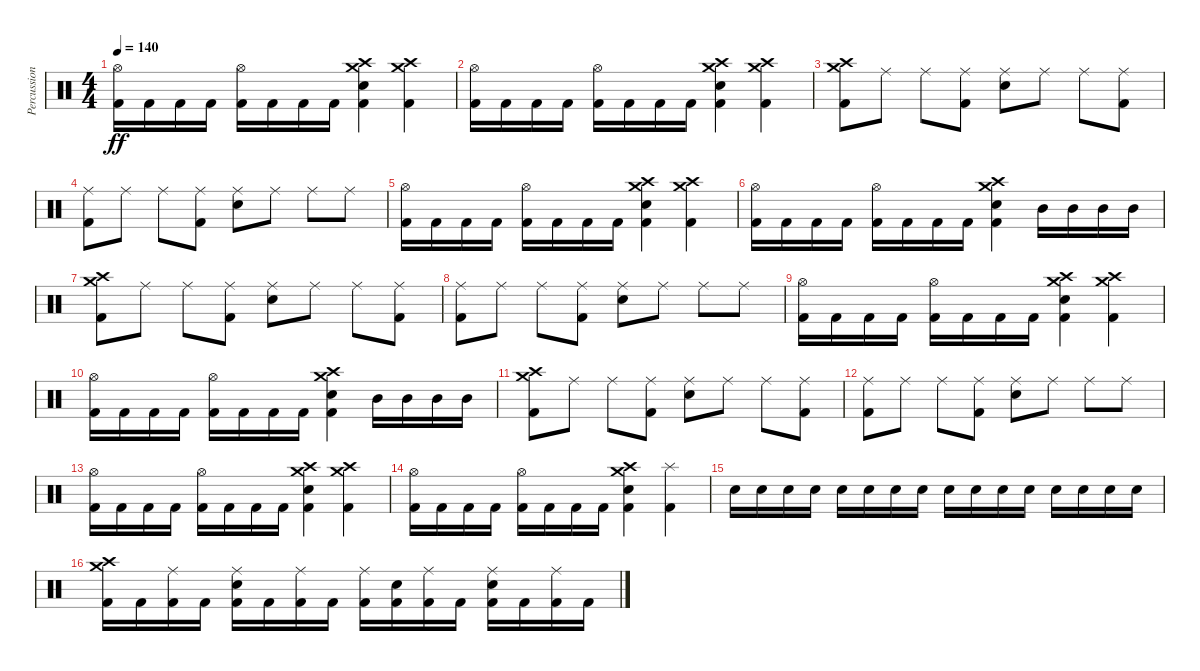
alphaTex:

\track ("Percussion" "Percussion") {instrument percussion}
\staff {score}
\articulation defaults
\ts (4 4)
\tempo 140
\clef neutral
\ks c
("Kick (hit) 2" "Hi-Hat (open)").16{dy ff} "Kick (hit) 2".16 "Kick (hit) 2".16 "Kick (hit) 2".16 ("Kick (hit) 2" "Hi-Hat (open)").16 "Kick (hit) 2".16 "Kick (hit) 2".16 "Kick (hit) 2".16 ("Kick (hit) 2" "Electric Snare (hit)" "Crash medium (hit)" "Crash high (hit)").4 ("Kick (hit) 2" "Crash medium (hit)" "Crash high (hit)").4 |
("Kick (hit) 2" "Hi-Hat (open)").16 "Kick (hit) 2".16 "Kick (hit) 2".16 "Kick (hit) 2".16 ("Kick (hit) 2" "Hi-Hat (open)").16 "Kick (hit) 2".16 "Kick (hit) 2".16 "Kick (hit) 2".16 ("Kick (hit) 2" "Electric Snare (hit)" "Crash medium (hit)" "Crash high (hit)").4 ("Kick (hit) 2" "Crash medium (hit)" "Crash high (hit)").4 |
("Kick (hit) 2" "Crash medium (hit)" "Crash high (hit)").8 "Ride (middle)".8 "Ride (middle)".8 ("Kick (hit) 2" "Ride (middle)").8 ("Electric Snare (hit)" "Ride (middle)").8 "Ride (middle)".8 "Ride (middle)".8 ("Kick (hit) 2" "Ride (middle)").8 |
("Kick (hit) 2" "Ride (middle)").8 "Ride (middle)".8 "Ride (middle)".8 ("Kick (hit) 2" "Ride (middle)").8 ("Electric Snare (hit)" "Ride (middle)").8 "Ride (middle)".8 "Ride (middle)".8 "Ride (middle)".8 |
("Kick (hit) 2" "Hi-Hat (open)").16 "Kick (hit) 2".16 "Kick (hit) 2".16 "Kick (hit) 2".16 ("Kick (hit) 2" "Hi-Hat (open)").16 "Kick (hit) 2".16 "Kick (hit) 2".16 "Kick (hit) 2".16 ("Kick (hit) 2" "Electric Snare (hit)" "Crash medium (hit)" "Crash high (hit)").4 ("Kick (hit) 2" "Crash medium (hit)" "Crash high (hit)").4 |
("Kick (hit) 2" "Hi-Hat (open)").16 "Kick (hit) 2".16 "Kick (hit) 2".16 "Kick (hit) 2".16 ("Kick (hit) 2" "Hi-Hat (open)").16 "Kick (hit) 2".16 "Kick (hit) 2".16 "Kick (hit) 2".16 ("Kick (hit) 2" "Electric Snare (hit)" "Crash medium (hit)" "Crash high (hit)").4 "Mid Tom (hit)".16 "Mid Tom (hit)".16 "Mid Tom (hit)".16 "Mid Tom (hit)".16 |
("Kick (hit) 2" "Crash medium (hit)" "Crash high (hit)").8 "Ride (middle)".8 "Ride (middle)".8 ("Kick (hit) 2" "Ride (middle)").8 ("Electric Snare (hit)" "Ride (middle)").8 "Ride (middle)".8 "Ride (middle)".8 ("Kick (hit) 2" "Ride (middle)").8 |
("Kick (hit) 2" "Ride (middle)").8 "Ride (middle)".8 "Ride (middle)".8 ("Kick (hit) 2" "Ride (middle)").8 ("Electric Snare (hit)" "Ride (middle)").8 "Ride (middle)".8 "Ride (middle)".8 "Ride (middle)".8 |
("Kick (hit) 2" "Hi-Hat (open)").16 "Kick (hit) 2".16 "Kick (hit) 2".16 "Kick (hit) 2".16 ("Kick (hit) 2" "Hi-Hat (open)").16 "Kick (hit) 2".16 "Kick (hit) 2".16 "Kick (hit) 2".16 ("Kick (hit) 2" "Electric Snare (hit)" "Crash medium (hit)" "Crash high (hit)").4 ("Kick (hit) 2" "Crash medium (hit)" "Crash high (hit)").4 |
("Kick (hit) 2" "Hi-Hat (open)").16 "Kick (hit) 2".16 "Kick (hit) 2".16 "Kick (hit) 2".16 ("Kick (hit) 2" "Hi-Hat (open)").16 "Kick (hit) 2".16 "Kick (hit) 2".16 "Kick (hit) 2".16 ("Kick (hit) 2" "Electric Snare (hit)" "Crash medium (hit)" "Crash high (hit)").4 "Mid Tom (hit)".16 "Mid Tom (hit)".16 "Mid Tom (hit)".16 "Mid Tom (hit)".16 |
("Kick (hit) 2" "Crash medium (hit)" "Crash high (hit)").8 "Ride (middle)".8 "Ride (middle)".8 ("Kick (hit) 2" "Ride (middle)").8 ("Electric Snare (hit)" "Ride (middle)").8 "Ride (middle)".8 "Ride (middle)".8 ("Kick (hit) 2" "Ride (middle)").8 |
("Kick (hit) 2" "Ride (middle)").8 "Ride (middle)".8 "Ride (middle)".8 ("Kick (hit) 2" "Ride (middle)").8 ("Electric Snare (hit)" "Ride (middle)").8 "Ride (middle)".8 "Ride (middle)".8 "Ride (middle)".8 |
("Kick (hit) 2" "Hi-Hat (open)").16 "Kick (hit) 2".16 "Kick (hit) 2".16 "Kick (hit) 2".16 ("Kick (hit) 2" "Hi-Hat (open)").16 "Kick (hit) 2".16 "Kick (hit) 2".16 "Kick (hit) 2".16 ("Kick (hit) 2" "Electric Snare (hit)" "Crash medium (hit)" "Crash high (hit)").4 ("Kick (hit) 2" "Crash medium (hit)" "Crash high (hit)").4 |
("Kick (hit) 2" "Hi-Hat (open)").16 "Kick (hit) 2".16 "Kick (hit) 2".16 "Kick (hit) 2".16 ("Kick (hit) 2" "Hi-Hat (open)").16 "Kick (hit) 2".16 "Kick (hit) 2".16 "Kick (hit) 2".16 ("Kick (hit) 2" "Electric Snare (hit)" "Crash medium (hit)" "Crash high (hit)").4 ("Kick (hit) 2" "Splash (hit)").4 |
"Electric Snare (hit)".16 "Electric Snare (hit)".16 "Electric Snare (hit)".16 "Electric Snare (hit)".16 "Electric Snare (hit)".16 "Electric Snare (hit)".16 "Electric Snare (hit)".16 "Electric Snare (hit)".16 "Electric Snare (hit)".16 "Electric Snare (hit)".16 "Electric Snare (hit)".16 "Electric Snare (hit)".16 "Electric Snare (hit)".16 "Electric Snare (hit)".16 "Electric Snare (hit)".16 "Electric Snare (hit)".16 |
("Kick (hit) 2" "Crash medium (hit)" "Crash high (hit)").16 "Kick (hit) 2".16 ("Kick (hit) 2" "Ride (middle)").16 "Kick (hit) 2".16 ("Kick (hit) 2" "Electric Snare (hit)" "Ride (middle)").16 "Kick (hit) 2".16 ("Kick (hit) 2" "Ride (middle)").16 "Kick (hit) 2".16 ("Kick (hit) 2" "Ride (middle)").16 ("Kick (hit) 2" "Electric Snare (hit)").16 ("Kick (hit) 2" "Ride (middle)").16 "Kick (hit) 2".16 ("Kick (hit) 2" "Electric Snare (hit)" "Ride (middle)").16 "Kick (hit) 2".16 ("Kick (hit) 2" "Ride (middle)").16 "Kick (hit) 2".16
